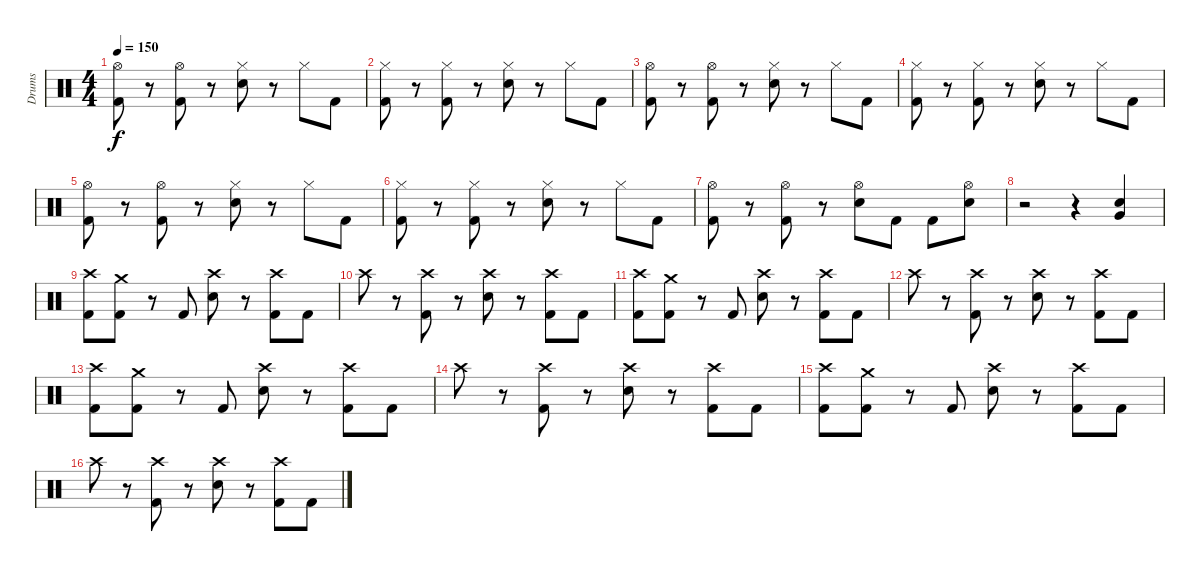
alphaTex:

\track ("Drums" "Drums") {instrument percussion}
\staff {score}
\articulation defaults
\ts (4 4)
\tempo 150
\clef neutral
\ks c
("Hi-Hat (open)" "Kick (hit) 2").8{dy f} r.8 ("Hi-Hat (open)" "Kick (hit) 2").8 r.8 ("Hi-Hat (closed)" "Electric Snare (hit)").8 r.8 "Hi-Hat (closed)".8 "Kick (hit) 2".8 |
("Hi-Hat (closed)" "Kick (hit) 2").8 r.8 ("Hi-Hat (closed)" "Kick (hit) 2").8 r.8 ("Hi-Hat (closed)" "Electric Snare (hit)").8 r.8 "Hi-Hat (closed)".8 "Kick (hit) 2".8 |
("Hi-Hat (open)" "Kick (hit) 2").8 r.8 ("Hi-Hat (open)" "Kick (hit) 2").8 r.8 ("Hi-Hat (closed)" "Electric Snare (hit)").8 r.8 "Hi-Hat (closed)".8 "Kick (hit) 2".8 |
("Hi-Hat (closed)" "Kick (hit) 2").8 r.8 ("Hi-Hat (closed)" "Kick (hit) 2").8 r.8 ("Hi-Hat (closed)" "Electric Snare (hit)").8 r.8 "Hi-Hat (closed)".8 "Kick (hit) 2".8 |
("Hi-Hat (open)" "Kick (hit) 2").8 r.8 ("Hi-Hat (open)" "Kick (hit) 2").8 r.8 ("Hi-Hat (closed)" "Electric Snare (hit)").8 r.8 "Hi-Hat (closed)".8 "Kick (hit) 2".8 |
("Hi-Hat (closed)" "Kick (hit) 2").8 r.8 ("Hi-Hat (closed)" "Kick (hit) 2").8 r.8 ("Hi-Hat (closed)" "Electric Snare (hit)").8 r.8 "Hi-Hat (closed)".8 "Kick (hit) 2".8 |
("Hi-Hat (open)" "Kick (hit) 2").8 r.8 ("Hi-Hat (open)" "Kick (hit) 2").8 r.8 ("Hi-Hat (open)" "Electric Snare (hit)").8 "Kick (hit) 2".8 "Kick (hit) 2".8 ("Hi-Hat (open)" "Electric Snare (hit)").8 |
r.2 r.4 ("Very Low Tom (hit)" "Electric Snare (hit)").4 |
("Crash high (hit)" "Kick (hit) 2").8 ("Crash medium (hit)" "Kick (hit) 2").8 r.8 "Kick (hit) 2".8 ("Crash high (hit)" "Electric Snare (hit)").8 r.8 ("Crash high (hit)" "Kick (hit) 2").8 "Kick (hit) 2".8 |
"Crash high (hit)".8 r.8 ("Crash high (hit)" "Kick (hit) 2").8 r.8 ("Crash high (hit)" "Electric Snare (hit)").8 r.8 ("Crash high (hit)" "Kick (hit) 2").8 "Kick (hit) 2".8 |
("Crash high (hit)" "Kick (hit) 2").8 ("Crash medium (hit)" "Kick (hit) 2").8 r.8 "Kick (hit) 2".8 ("Crash high (hit)" "Electric Snare (hit)").8 r.8 ("Crash high (hit)" "Kick (hit) 2").8 "Kick (hit) 2".8 |
"Crash high (hit)".8 r.8 ("Crash high (hit)" "Kick (hit) 2").8 r.8 ("Crash high (hit)" "Electric Snare (hit)").8 r.8 ("Crash high (hit)" "Kick (hit) 2").8 "Kick (hit) 2".8 |
("Crash high (hit)" "Kick (hit) 2").8 ("Crash medium (hit)" "Kick (hit) 2").8 r.8 "Kick (hit) 2".8 ("Crash high (hit)" "Electric Snare (hit)").8 r.8 ("Crash high (hit)" "Kick (hit) 2").8 "Kick (hit) 2".8 |
"Crash high (hit)".8 r.8 ("Crash high (hit)" "Kick (hit) 2").8 r.8 ("Crash high (hit)" "Electric Snare (hit)").8 r.8 ("Crash high (hit)" "Kick (hit) 2").8 "Kick (hit) 2".8 |
("Crash high (hit)" "Kick (hit) 2").8 ("Crash medium (hit)" "Kick (hit) 2").8 r.8 "Kick (hit) 2".8 ("Crash high (hit)" "Electric Snare (hit)").8 r.8 ("Crash high (hit)" "Kick (hit) 2").8 "Kick (hit) 2".8 |
"Crash high (hit)".8 r.8 ("Crash high (hit)" "Kick (hit) 2").8 r.8 ("Crash high (hit)" "Electric Snare (hit)").8 r.8 ("Crash high (hit)" "Kick (hit) 2").8 "Kick (hit) 2".8
